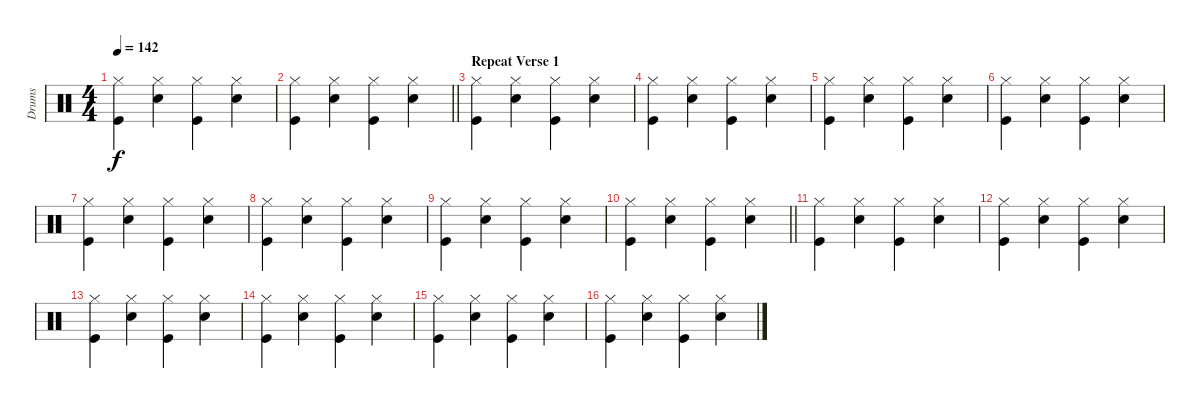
\track ("Drums" "Drums") {instrument percussion}
\staff {score}
\articulation defaults
\ts (4 4)
\tempo 142
\clef neutral
\ks c
("Hi-Hat (closed)" "Kick (hit)").4{dy f} ("Hi-Hat (closed)" "Snare (hit) 2").4 ("Hi-Hat (closed)" "Kick (hit)").4 ("Hi-Hat (closed)" "Snare (hit) 2").4 |
\barLineRight lightlight
("Hi-Hat (closed)" "Kick (hit)").4 ("Hi-Hat (closed)" "Snare (hit) 2").4 ("Hi-Hat (closed)" "Kick (hit)").4 ("Hi-Hat (closed)" "Snare (hit) 2").4 |
\section ("" "Repeat Verse 1")
("Hi-Hat (closed)" "Kick (hit)").4 ("Hi-Hat (closed)" "Snare (hit) 2").4 ("Hi-Hat (closed)" "Kick (hit)").4 ("Hi-Hat (closed)" "Snare (hit) 2").4 |
("Hi-Hat (closed)" "Kick (hit)").4 ("Hi-Hat (closed)" "Snare (hit) 2").4 ("Hi-Hat (closed)" "Kick (hit)").4 ("Hi-Hat (closed)" "Snare (hit) 2").4 |
("Hi-Hat (closed)" "Kick (hit)").4 ("Hi-Hat (closed)" "Snare (hit) 2").4 ("Hi-Hat (closed)" "Kick (hit)").4 ("Hi-Hat (closed)" "Snare (hit) 2").4 |
("Hi-Hat (closed)" "Kick (hit)").4 ("Hi-Hat (closed)" "Snare (hit) 2").4 ("Hi-Hat (closed)" "Kick (hit)").4 ("Hi-Hat (closed)" "Snare (hit) 2").4 |
("Hi-Hat (closed)" "Kick (hit)").4 ("Hi-Hat (closed)" "Snare (hit) 2").4 ("Hi-Hat (closed)" "Kick (hit)").4 ("Hi-Hat (closed)" "Snare (hit) 2").4 |
("Hi-Hat (closed)" "Kick (hit)").4 ("Hi-Hat (closed)" "Snare (hit) 2").4 ("Hi-Hat (closed)" "Kick (hit)").4 ("Hi-Hat (closed)" "Snare (hit) 2").4 |
("Hi-Hat (closed)" "Kick (hit)").4 ("Hi-Hat (closed)" "Snare (hit) 2").4 ("Hi-Hat (closed)" "Kick (hit)").4 ("Hi-Hat (closed)" "Snare (hit) 2").4 |
\barLineRight lightlight
("Hi-Hat (closed)" "Kick (hit)").4 ("Hi-Hat (closed)" "Snare (hit) 2").4 ("Hi-Hat (closed)" "Kick (hit)").4 ("Hi-Hat (closed)" "Snare (hit) 2").4 |
("Hi-Hat (closed)" "Kick (hit)").4 ("Hi-Hat (closed)" "Snare (hit) 2").4 ("Hi-Hat (closed)" "Kick (hit)").4 ("Hi-Hat (closed)" "Snare (hit) 2").4 |
("Hi-Hat (closed)" "Kick (hit)").4 ("Hi-Hat (closed)" "Snare (hit) 2").4 ("Hi-Hat (closed)" "Kick (hit)").4 ("Hi-Hat (closed)" "Snare (hit) 2").4 |
("Hi-Hat (closed)" "Kick (hit)").4 ("Hi-Hat (closed)" "Snare (hit) 2").4 ("Hi-Hat (closed)" "Kick (hit)").4 ("Hi-Hat (closed)" "Snare (hit) 2").4 |
("Hi-Hat (closed)" "Kick (hit)").4 ("Hi-Hat (closed)" "Snare (hit) 2").4 ("Hi-Hat (closed)" "Kick (hit)").4 ("Hi-Hat (closed)" "Snare (hit) 2").4 |
("Hi-Hat (closed)" "Kick (hit)").4 ("Hi-Hat (closed)" "Snare (hit) 2").4 ("Hi-Hat (closed)" "Kick (hit)").4 ("Hi-Hat (closed)" "Snare (hit) 2").4 |
("Hi-Hat (closed)" "Kick (hit)").4 ("Hi-Hat (closed)" "Snare (hit) 2").4 ("Hi-Hat (closed)" "Kick (hit)").4 ("Hi-Hat (closed)" "Snare (hit) 2").4
